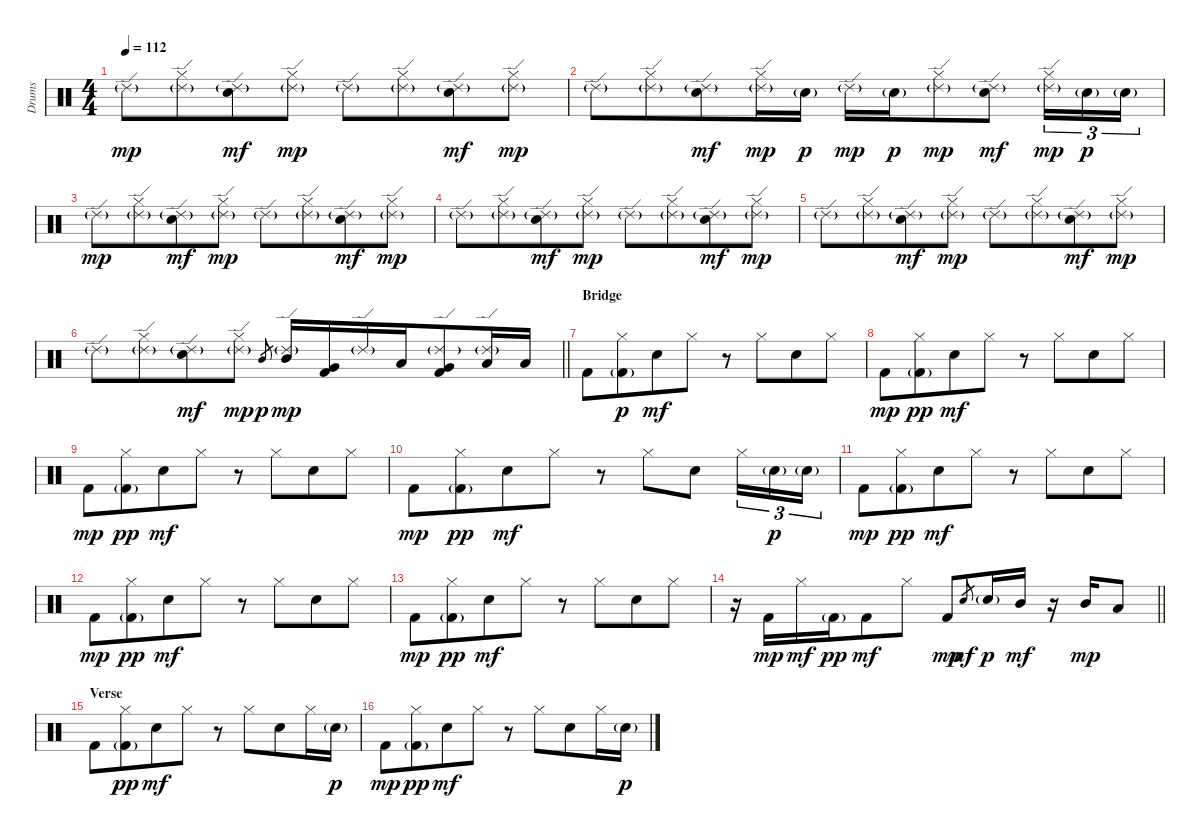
\track ("Drums" "Drums") {instrument percussion}
\staff {score}
\articulation defaults
\ts (4 4)
\tempo 112
\clef neutral
\ks c "Ride (edge) 2"{g}.8{dy mp}
("Hi-Hat (closed)" "Ride (edge) 2"{g}).8{beam merge} ("Ride (edge) 2"{g} "Electric Snare (hit)").8{dy mf} ("Hi-Hat (closed)" "Ride (edge) 2"{g}).8{dy mp} "Ride (edge) 2"{g}.8 ("Hi-Hat (closed)" "Ride (edge) 2"{g}).8{beam merge} ("Ride (edge) 2"{g} "Electric Snare (hit)").8{dy mf} ("Hi-Hat (closed)" "Ride (edge) 2"{g}).8{dy mp} |
"Ride (edge) 2"{g}.8 ("Hi-Hat (closed)" "Ride (edge) 2"{g}).8{beam merge} ("Ride (edge) 2"{g} "Electric Snare (hit)").8{dy mf} ("Hi-Hat (closed)" "Ride (edge) 2"{g}).16{dy mp} "Electric Snare (hit)"{g}.16{dy p} "Ride (edge) 2"{g}.16{dy mp} "Electric Snare (hit)"{g}.16{dy p} ("Hi-Hat (closed)" "Ride (edge) 2"{g}).8{dy mp beam merge} ("Ride (edge) 2"{g} "Electric Snare (hit)").8{dy mf} ("Hi-Hat (closed)" "Ride (edge) 2"{g}).16{tu (3 2) dy mp} "Electric Snare (hit)"{g}.16{tu (3 2) dy p} "Electric Snare (hit)"{g}.16{tu (3 2)} |
"Ride (edge) 2"{g}.8{dy mp} ("Hi-Hat (closed)" "Ride (edge) 2"{g}).8{beam merge} ("Ride (edge) 2"{g} "Electric Snare (hit)").8{dy mf} ("Hi-Hat (closed)" "Ride (edge) 2"{g}).8{dy mp} "Ride (edge) 2"{g}.8 ("Hi-Hat (closed)" "Ride (edge) 2"{g}).8{beam merge} ("Ride (edge) 2"{g} "Electric Snare (hit)").8{dy mf} ("Hi-Hat (closed)" "Ride (edge) 2"{g}).8{dy mp} |
"Ride (edge) 2"{g}.8 ("Hi-Hat (closed)" "Ride (edge) 2"{g}).8{beam merge} ("Ride (edge) 2"{g} "Electric Snare (hit)").8{dy mf} ("Hi-Hat (closed)" "Ride (edge) 2"{g}).8{dy mp} "Ride (edge) 2"{g}.8 ("Hi-Hat (closed)" "Ride (edge) 2"{g}).8{beam merge} ("Ride (edge) 2"{g} "Electric Snare (hit)").8{dy mf} ("Hi-Hat (closed)" "Ride (edge) 2"{g}).8{dy mp} |
"Ride (edge) 2"{g}.8 ("Hi-Hat (closed)" "Ride (edge) 2"{g}).8{beam merge} ("Ride (edge) 2"{g} "Electric Snare (hit)").8{dy mf} ("Hi-Hat (closed)" "Ride (edge) 2"{g}).8{dy mp} "Ride (edge) 2"{g}.8 ("Hi-Hat (closed)" "Ride (edge) 2"{g}).8{beam merge} ("Ride (edge) 2"{g} "Electric Snare (hit)").8{dy mf} ("Hi-Hat (closed)" "Ride (edge) 2"{g}).8{dy mp} |
\barLineRight lightlight "Ride (edge) 2"{g}.8
("Hi-Hat (closed)" "Ride (edge) 2"{g}).8{beam merge} ("Ride (edge) 2"{g} "Electric Snare (hit)").8{dy mf} ("Hi-Hat (closed)" "Ride (edge) 2"{g}).8{dy mp} "Mid Tom (hit)".8{gr dy p} ("Ride (edge) 2"{g} "Mid Tom (hit)").16{dy mp} ("Very Low Tom (hit)" "Kick (hit) 2").16 "Ride (edge) 2"{g}.16 "Low Tom (hit)".16{beam merge} ("Ride (edge) 2"{g} "Very Low Tom (hit)" "Kick (hit) 2").8 ("Ride (edge) 2"{g} "Low Tom (hit)").16 "Low Tom (hit)".16 |
\section ("" "Bridge")
"Kick (hit) 2".8 ("Hi-Hat (closed)" "Kick (hit) 2"{g}).8{dy p beam merge} "Electric Snare (hit)".8{dy mf} "Hi-Hat (closed)".8 r.8 "Hi-Hat (closed)".8{beam merge} "Electric Snare (hit)".8 "Hi-Hat (closed)".8 |
"Kick (hit) 2".8{dy mp} ("Hi-Hat (closed)" "Kick (hit) 2"{g}).8{dy pp beam merge} "Electric Snare (hit)".8{dy mf} "Hi-Hat (closed)".8 r.8 "Hi-Hat (closed)".8{beam merge} "Electric Snare (hit)".8 "Hi-Hat (closed)".8 |
"Kick (hit) 2".8{dy mp} ("Hi-Hat (closed)" "Kick (hit) 2"{g}).8{dy pp beam merge} "Electric Snare (hit)".8{dy mf} "Hi-Hat (closed)".8 r.8 "Hi-Hat (closed)".8{beam merge} "Electric Snare (hit)".8 "Hi-Hat (closed)".8 |
"Kick (hit) 2".8{dy mp} ("Hi-Hat (closed)" "Kick (hit) 2"{g}).8{dy pp beam merge} "Electric Snare (hit)".8{dy mf} "Hi-Hat (closed)".8 r.8 "Hi-Hat (closed)".8{beam merge} "Electric Snare (hit)".8 "Hi-Hat (closed)".16{tu (3 2)} "Electric Snare (hit)"{g}.16{tu (3 2) dy p} "Electric Snare (hit)"{g}.16{tu (3 2)} |
"Kick (hit) 2".8{dy mp} ("Hi-Hat (closed)" "Kick (hit) 2"{g}).8{dy pp beam merge} "Electric Snare (hit)".8{dy mf} "Hi-Hat (closed)".8 r.8 "Hi-Hat (closed)".8{beam merge} "Electric Snare (hit)".8 "Hi-Hat (closed)".8 |
"Kick (hit) 2".8{dy mp} ("Hi-Hat (closed)" "Kick (hit) 2"{g}).8{dy pp beam merge} "Electric Snare (hit)".8{dy mf} "Hi-Hat (closed)".8 r.8 "Hi-Hat (closed)".8{beam merge} "Electric Snare (hit)".8 "Hi-Hat (closed)".8 |
"Kick (hit) 2".8{dy mp} ("Hi-Hat (closed)" "Kick (hit) 2"{g}).8{dy pp beam merge} "Electric Snare (hit)".8{dy mf} "Hi-Hat (closed)".8 r.8 "Hi-Hat (closed)".8{beam merge} "Electric Snare (hit)".8 "Hi-Hat (closed)".8 |
\barLineRight lightlight
r.16 "Kick (hit) 2".16{dy mp} "Hi-Hat (closed)".16{dy mf} "Kick (hit) 2"{g}.16{dy pp beam merge} "Kick (hit) 2".8{dy mf} "Hi-Hat (closed)".8 "Kick (hit) 2".8{dy mp} "Electric Snare (hit)".8{gr dy mf} "Electric Snare (hit)"{g}.16{dy p} "Mid Tom (hit)".16{dy mf} r.16 "Mid Tom (hit)".16{dy mp} "Low Tom (hit)".8 |
\section ("" "Verse")
"Kick (hit) 2".8 ("Hi-Hat (closed)" "Kick (hit) 2"{g}).8{dy pp beam merge} "Electric Snare (hit)".8{dy mf} "Hi-Hat (closed)".8 r.8 "Hi-Hat (closed)".8{beam merge} "Electric Snare (hit)".8 "Hi-Hat (closed)".16 "Electric Snare (hit)"{g}.16{dy p} |
"Kick (hit) 2".8{dy mp} ("Hi-Hat (closed)" "Kick (hit) 2"{g}).8{dy pp beam merge} "Electric Snare (hit)".8{dy mf} "Hi-Hat (closed)".8 r.8 "Hi-Hat (closed)".8{beam merge} "Electric Snare (hit)".8 "Hi-Hat (closed)".16 "Electric Snare (hit)"{g}.16{dy p}
